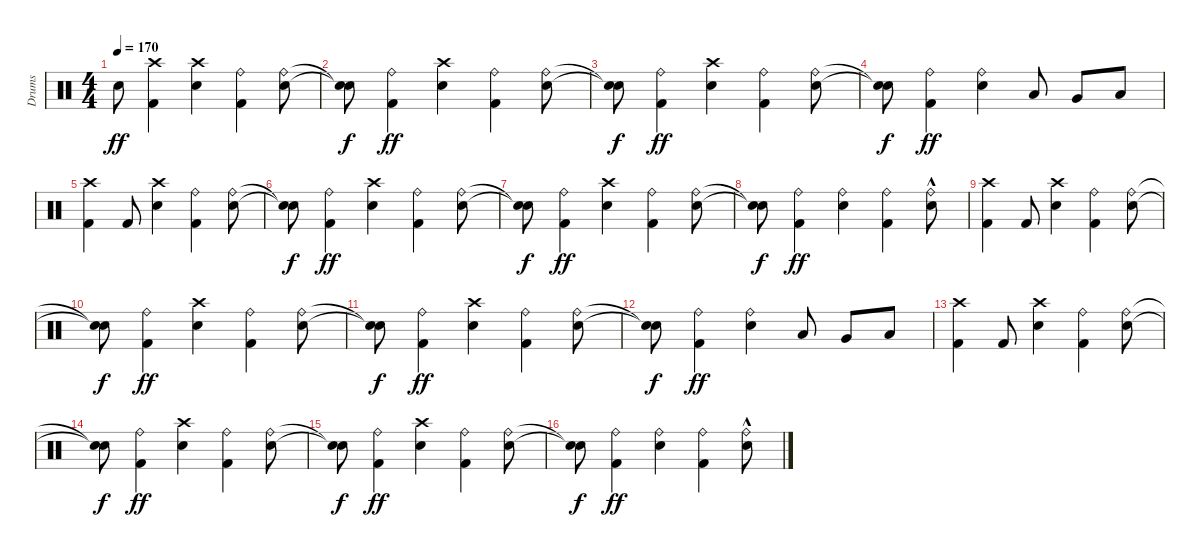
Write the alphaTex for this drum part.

\track ("Drums" "Drums") {instrument percussion}
\staff {score}
\articulation defaults
\ts (4 4)
\tempo 170
\clef neutral
\ks c "Snare (hit) 2".8{dy ff}
("Kick (hit) 2" "Crash high (hit)").4 ("Snare (hit) 2" "Crash high (hit)").4 ("Kick (hit) 2" "Ride (bell)").4 ("Snare (hit) 2" "Ride (bell)").8 |
("Snare (hit)"{t} "Snare (hit)"{t}).8{dy f} ("Kick (hit) 2" "Ride (bell)").4{dy ff} ("Snare (hit) 2" "Crash high (hit)").4 ("Kick (hit) 2" "Ride (bell)").4 ("Snare (hit) 2" "Ride (bell)").8 |
("Snare (hit)"{t} "Snare (hit)"{t}).8{dy f} ("Kick (hit) 2" "Ride (bell)").4{dy ff} ("Snare (hit) 2" "Crash high (hit)").4 ("Kick (hit) 2" "Ride (bell)").4 ("Snare (hit) 2" "Ride (bell)").8 |
("Snare (hit)"{t} "Snare (hit)"{t}).8{dy f} ("Kick (hit) 2" "Ride (bell)").4{dy ff} ("Snare (hit) 2" "Ride (bell)").4 "Low Tom (hit)".8 "Very Low Tom (hit)".8 "Low Floor Tom (hit)".8 |
("Kick (hit) 2" "Crash high (hit)").4 "Kick (hit) 2".8 ("Snare (hit) 2" "Crash high (hit)").4 ("Kick (hit) 2" "Ride (bell)").4 ("Snare (hit) 2" "Ride (bell)").8 |
("Snare (hit)"{t} "Snare (hit)"{t}).8{dy f} ("Kick (hit) 2" "Ride (bell)").4{dy ff} ("Snare (hit) 2" "Crash high (hit)").4 ("Kick (hit) 2" "Ride (bell)").4 ("Snare (hit) 2" "Ride (bell)").8 |
("Snare (hit)"{t} "Snare (hit)"{t}).8{dy f} ("Kick (hit) 2" "Ride (bell)").4{dy ff} ("Snare (hit) 2" "Crash high (hit)").4 ("Kick (hit) 2" "Ride (bell)").4 ("Snare (hit) 2" "Ride (bell)").8 |
("Snare (hit)"{t} "Snare (hit)"{t}).8{dy f} ("Kick (hit) 2" "Ride (bell)").4{dy ff} ("Snare (hit) 2" "Ride (bell)").4 ("Kick (hit) 2" "Ride (bell)").4 ("Snare (hit) 2" "Ride (bell)"{hac}).8 |
("Kick (hit) 2" "Crash high (hit)").4 "Kick (hit) 2".8 ("Snare (hit) 2" "Crash high (hit)").4 ("Kick (hit) 2" "Ride (bell)").4 ("Snare (hit) 2" "Ride (bell)").8 |
("Snare (hit)"{t} "Snare (hit)"{t}).8{dy f} ("Kick (hit) 2" "Ride (bell)").4{dy ff} ("Snare (hit) 2" "Crash high (hit)").4 ("Kick (hit) 2" "Ride (bell)").4 ("Snare (hit) 2" "Ride (bell)").8 |
("Snare (hit)"{t} "Snare (hit)"{t}).8{dy f} ("Kick (hit) 2" "Ride (bell)").4{dy ff} ("Snare (hit) 2" "Crash high (hit)").4 ("Kick (hit) 2" "Ride (bell)").4 ("Snare (hit) 2" "Ride (bell)").8 |
("Snare (hit)"{t} "Snare (hit)"{t}).8{dy f} ("Kick (hit) 2" "Ride (bell)").4{dy ff} ("Snare (hit) 2" "Ride (bell)").4 "Low Tom (hit)".8 "Very Low Tom (hit)".8 "Low Floor Tom (hit)".8 |
("Kick (hit) 2" "Crash high (hit)").4 "Kick (hit) 2".8 ("Snare (hit) 2" "Crash high (hit)").4 ("Kick (hit) 2" "Ride (bell)").4 ("Snare (hit) 2" "Ride (bell)").8 |
("Snare (hit)"{t} "Snare (hit)"{t}).8{dy f} ("Kick (hit) 2" "Ride (bell)").4{dy ff} ("Snare (hit) 2" "Crash high (hit)").4 ("Kick (hit) 2" "Ride (bell)").4 ("Snare (hit) 2" "Ride (bell)").8 |
("Snare (hit)"{t} "Snare (hit)"{t}).8{dy f} ("Kick (hit) 2" "Ride (bell)").4{dy ff} ("Snare (hit) 2" "Crash high (hit)").4 ("Kick (hit) 2" "Ride (bell)").4 ("Snare (hit) 2" "Ride (bell)").8 |
("Snare (hit)"{t} "Snare (hit)"{t}).8{dy f} ("Kick (hit) 2" "Ride (bell)").4{dy ff} ("Snare (hit) 2" "Ride (bell)").4 ("Kick (hit) 2" "Ride (bell)").4 ("Snare (hit) 2" "Ride (bell)"{hac}).8
